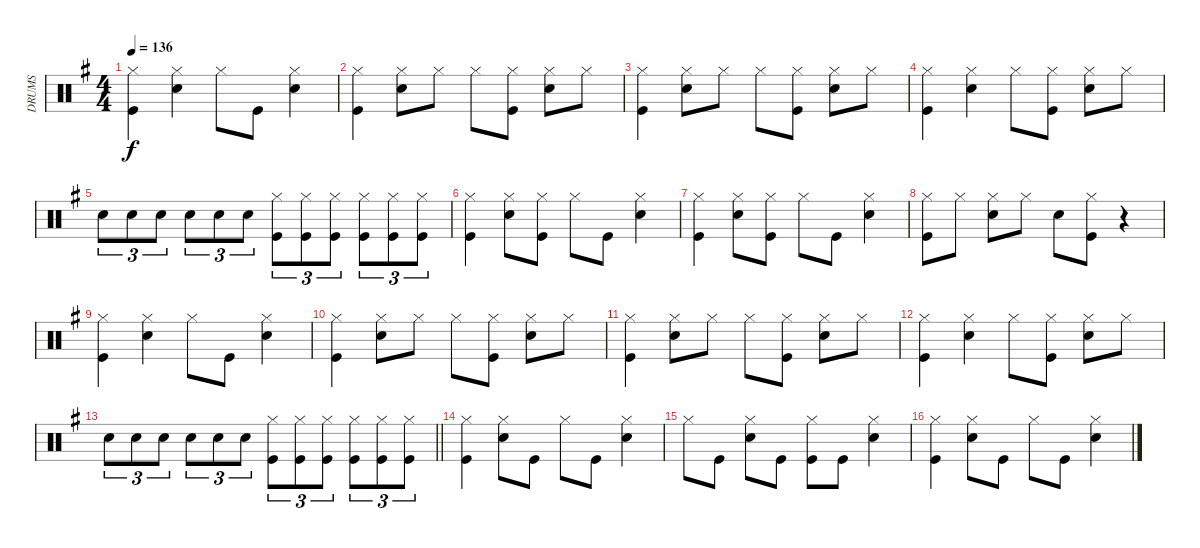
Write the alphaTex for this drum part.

\track ("DRUMS" "DRUMS") {instrument percussion}
\staff {score}
\articulation defaults
\ts (4 4)
\tempo 136
\clef neutral
\ks eminor
("Hi-Hat (closed)" "Kick (hit)").4{dy f} ("Hi-Hat (closed)" "Snare (hit) 2").4 "Hi-Hat (closed)".8 "Kick (hit)".8 ("Hi-Hat (closed)" "Snare (hit) 2").4 |
("Hi-Hat (closed)" "Kick (hit)").4 ("Hi-Hat (closed)" "Snare (hit) 2").8 "Hi-Hat (closed)".8 "Hi-Hat (closed)".8 ("Hi-Hat (closed)" "Kick (hit)").8 ("Hi-Hat (closed)" "Snare (hit) 2").8 "Hi-Hat (closed)".8 |
("Hi-Hat (closed)" "Kick (hit)").4 ("Hi-Hat (closed)" "Snare (hit) 2").8 "Hi-Hat (closed)".8 "Hi-Hat (closed)".8 ("Hi-Hat (closed)" "Kick (hit)").8 ("Hi-Hat (closed)" "Snare (hit) 2").8 "Hi-Hat (closed)".8 |
("Hi-Hat (closed)" "Kick (hit)").4 ("Hi-Hat (closed)" "Snare (hit) 2").4 "Hi-Hat (closed)".8 ("Hi-Hat (closed)" "Kick (hit)").8 ("Hi-Hat (closed)" "Snare (hit) 2").8 "Hi-Hat (closed)".8 |
"Snare (hit) 2".8{tu (3 2)} "Snare (hit) 2".8{tu (3 2)} "Snare (hit) 2".8{tu (3 2)} "Snare (hit) 2".8{tu (3 2)} "Snare (hit) 2".8{tu (3 2)} "Snare (hit) 2".8{tu (3 2)} ("Hi-Hat (closed)" "Kick (hit)").8{tu (3 2)} ("Hi-Hat (closed)" "Kick (hit)").8{tu (3 2)} ("Hi-Hat (closed)" "Kick (hit)").8{tu (3 2)} ("Hi-Hat (closed)" "Kick (hit)").8{tu (3 2)} ("Hi-Hat (closed)" "Kick (hit)").8{tu (3 2)} ("Hi-Hat (closed)" "Kick (hit)").8{tu (3 2)} |
("Hi-Hat (closed)" "Kick (hit)").4 ("Hi-Hat (closed)" "Snare (hit) 2").8 ("Hi-Hat (closed)" "Kick (hit)").8 "Hi-Hat (closed)".8 "Kick (hit)".8 ("Hi-Hat (closed)" "Snare (hit) 2").4 |
("Hi-Hat (closed)" "Kick (hit)").4 ("Hi-Hat (closed)" "Snare (hit) 2").8 ("Hi-Hat (closed)" "Kick (hit)").8 "Hi-Hat (closed)".8 "Kick (hit)".8 ("Hi-Hat (closed)" "Snare (hit) 2").4 |
("Hi-Hat (closed)" "Kick (hit)").8 "Hi-Hat (closed)".8 ("Hi-Hat (closed)" "Snare (hit) 2").8 "Hi-Hat (closed)".8 "Snare (hit) 2".8 ("Hi-Hat (closed)" "Kick (hit)").8 r.4 |
("Hi-Hat (closed)" "Kick (hit)").4 ("Hi-Hat (closed)" "Snare (hit) 2").4 "Hi-Hat (closed)".8 "Kick (hit)".8 ("Hi-Hat (closed)" "Snare (hit) 2").4 |
("Hi-Hat (closed)" "Kick (hit)").4 ("Hi-Hat (closed)" "Snare (hit) 2").8 "Hi-Hat (closed)".8 "Hi-Hat (closed)".8 ("Hi-Hat (closed)" "Kick (hit)").8 ("Hi-Hat (closed)" "Snare (hit) 2").8 "Hi-Hat (closed)".8 |
("Hi-Hat (closed)" "Kick (hit)").4 ("Hi-Hat (closed)" "Snare (hit) 2").8 "Hi-Hat (closed)".8 "Hi-Hat (closed)".8 ("Hi-Hat (closed)" "Kick (hit)").8 ("Hi-Hat (closed)" "Snare (hit) 2").8 "Hi-Hat (closed)".8 |
("Hi-Hat (closed)" "Kick (hit)").4 ("Hi-Hat (closed)" "Snare (hit) 2").4 "Hi-Hat (closed)".8 ("Hi-Hat (closed)" "Kick (hit)").8 ("Hi-Hat (closed)" "Snare (hit) 2").8 "Hi-Hat (closed)".8 |
\barLineRight lightlight "Snare (hit) 2".8{tu (3 2)} "Snare (hit) 2".8{tu (3 2)} "Snare (hit) 2".8{tu (3 2)} "Snare (hit) 2".8{tu (3 2)} "Snare (hit) 2".8{tu (3 2)} "Snare (hit) 2".8{tu (3 2)}
("Hi-Hat (closed)" "Kick (hit)").8{tu (3 2)} ("Hi-Hat (closed)" "Kick (hit)").8{tu (3 2)} ("Hi-Hat (closed)" "Kick (hit)").8{tu (3 2)} ("Hi-Hat (closed)" "Kick (hit)").8{tu (3 2)} ("Hi-Hat (closed)" "Kick (hit)").8{tu (3 2)} ("Hi-Hat (closed)" "Kick (hit)").8{tu (3 2)} |
("Hi-Hat (closed)" "Kick (hit)").4 ("Hi-Hat (closed)" "Snare (hit) 2").8 "Kick (hit)".8 "Hi-Hat (closed)".8 "Kick (hit)".8 ("Hi-Hat (closed)" "Snare (hit) 2").4 |
"Hi-Hat (closed)".8 "Kick (hit)".8 ("Hi-Hat (closed)" "Snare (hit) 2").8 "Kick (hit)".8 ("Hi-Hat (closed)" "Kick (hit)").8 "Kick (hit)".8 ("Hi-Hat (closed)" "Snare (hit) 2").4 |
("Hi-Hat (closed)" "Kick (hit)").4 ("Hi-Hat (closed)" "Snare (hit) 2").8 "Kick (hit)".8 "Hi-Hat (closed)".8 "Kick (hit)".8 ("Hi-Hat (closed)" "Snare (hit) 2").4
